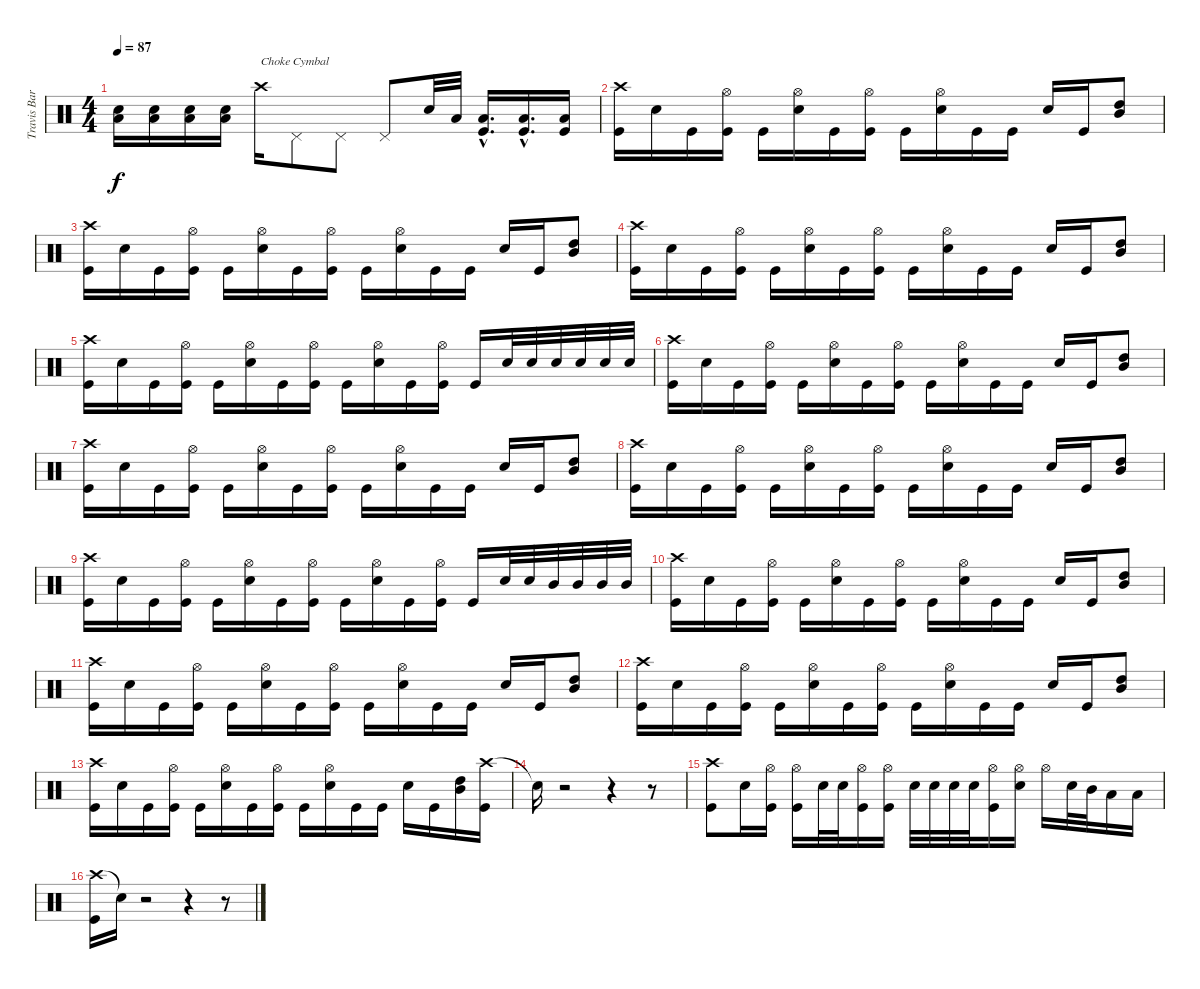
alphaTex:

\track ("Travis Barker" "Travis Bar") {instrument percussion}
\staff {score}
\articulation defaults
\ts (4 4)
\tempo 87
\clef neutral
\ks c
("Low Tom (hit)" "Electric Snare (hit)").16{dy f} ("Low Tom (hit)" "Electric Snare (hit)").16 ("Low Tom (hit)" "Electric Snare (hit)").16 ("Low Tom (hit)" "Electric Snare (hit)").16 "Crash high (hit)".16{txt "Choke Cymbal"} "Pedal Hi-Hat (hit)".8 "Pedal Hi-Hat (hit)".8 "Pedal Hi-Hat (hit)".8 "Electric Snare (hit)".32 "Low Tom (hit)".32 ("Low Tom (hit)"{hac} "Kick (hit)"{hac}).16{d} ("Low Tom (hit)"{hac} "Kick (hit)"{hac}).16{d} ("Low Tom (hit)" "Kick (hit)").16 |
("Crash high (hit)" "Kick (hit)").16 "Electric Snare (hit)".16 "Kick (hit)".16 ("Hi-Hat (open)" "Kick (hit)").16 "Kick (hit)".16 ("Hi-Hat (open)" "Electric Snare (hit)").16 "Kick (hit)".16 ("Hi-Hat (open)" "Kick (hit)").16 "Kick (hit)".16 ("Hi-Hat (open)" "Electric Snare (hit)").16 "Kick (hit)".16 "Kick (hit)".16 "Electric Snare (hit)".16 "Kick (hit)".16 ("High Tom (hit)" "Mid Tom (hit)").8 |
("Crash high (hit)" "Kick (hit)").16 "Electric Snare (hit)".16 "Kick (hit)".16 ("Hi-Hat (open)" "Kick (hit)").16 "Kick (hit)".16 ("Hi-Hat (open)" "Electric Snare (hit)").16 "Kick (hit)".16 ("Hi-Hat (open)" "Kick (hit)").16 "Kick (hit)".16 ("Hi-Hat (open)" "Electric Snare (hit)").16 "Kick (hit)".16 "Kick (hit)".16 "Electric Snare (hit)".16 "Kick (hit)".16 ("High Tom (hit)" "Mid Tom (hit)").8 |
("Crash high (hit)" "Kick (hit)").16 "Electric Snare (hit)".16 "Kick (hit)".16 ("Hi-Hat (open)" "Kick (hit)").16 "Kick (hit)".16 ("Hi-Hat (open)" "Electric Snare (hit)").16 "Kick (hit)".16 ("Hi-Hat (open)" "Kick (hit)").16 "Kick (hit)".16 ("Hi-Hat (open)" "Electric Snare (hit)").16 "Kick (hit)".16 "Kick (hit)".16 "Electric Snare (hit)".16 "Kick (hit)".16 ("High Tom (hit)" "Mid Tom (hit)").8 |
("Crash high (hit)" "Kick (hit)").16 "Electric Snare (hit)".16 "Kick (hit)".16 ("Hi-Hat (open)" "Kick (hit)").16 "Kick (hit)".16 ("Hi-Hat (open)" "Electric Snare (hit)").16 "Kick (hit)".16 ("Hi-Hat (open)" "Kick (hit)").16 "Kick (hit)".16 ("Hi-Hat (open)" "Electric Snare (hit)").16 "Kick (hit)".16 ("Hi-Hat (open)" "Kick (hit)").16 "Kick (hit)".16 "Electric Snare (hit)".32 "Electric Snare (hit)".32 "Electric Snare (hit)".32 "Electric Snare (hit)".32 "Electric Snare (hit)".32 "Electric Snare (hit)".32 |
("Crash high (hit)" "Kick (hit)").16 "Electric Snare (hit)".16 "Kick (hit)".16 ("Hi-Hat (open)" "Kick (hit)").16 "Kick (hit)".16 ("Hi-Hat (open)" "Electric Snare (hit)").16 "Kick (hit)".16 ("Hi-Hat (open)" "Kick (hit)").16 "Kick (hit)".16 ("Hi-Hat (open)" "Electric Snare (hit)").16 "Kick (hit)".16 "Kick (hit)".16 "Electric Snare (hit)".16 "Kick (hit)".16 ("High Tom (hit)" "Mid Tom (hit)").8 |
("Crash high (hit)" "Kick (hit)").16 "Electric Snare (hit)".16 "Kick (hit)".16 ("Hi-Hat (open)" "Kick (hit)").16 "Kick (hit)".16 ("Hi-Hat (open)" "Electric Snare (hit)").16 "Kick (hit)".16 ("Hi-Hat (open)" "Kick (hit)").16 "Kick (hit)".16 ("Hi-Hat (open)" "Electric Snare (hit)").16 "Kick (hit)".16 "Kick (hit)".16 "Electric Snare (hit)".16 "Kick (hit)".16 ("High Tom (hit)" "Mid Tom (hit)").8 |
("Crash high (hit)" "Kick (hit)").16 "Electric Snare (hit)".16 "Kick (hit)".16 ("Hi-Hat (open)" "Kick (hit)").16 "Kick (hit)".16 ("Hi-Hat (open)" "Electric Snare (hit)").16 "Kick (hit)".16 ("Hi-Hat (open)" "Kick (hit)").16 "Kick (hit)".16 ("Hi-Hat (open)" "Electric Snare (hit)").16 "Kick (hit)".16 "Kick (hit)".16 "Electric Snare (hit)".16 "Kick (hit)".16 ("High Tom (hit)" "Mid Tom (hit)").8 |
("Crash high (hit)" "Kick (hit)").16 "Electric Snare (hit)".16 "Kick (hit)".16 ("Hi-Hat (open)" "Kick (hit)").16 "Kick (hit)".16 ("Hi-Hat (open)" "Electric Snare (hit)").16 "Kick (hit)".16 ("Hi-Hat (open)" "Kick (hit)").16 "Kick (hit)".16 ("Hi-Hat (open)" "Electric Snare (hit)").16 "Kick (hit)".16 ("Hi-Hat (open)" "Kick (hit)").16 "Kick (hit)".16 "Electric Snare (hit)".32 "Electric Snare (hit)".32 "Mid Tom (hit)".32 "Mid Tom (hit)".32 "Mid Tom (hit)".32 "Mid Tom (hit)".32 |
("Crash high (hit)" "Kick (hit)").16 "Electric Snare (hit)".16 "Kick (hit)".16 ("Hi-Hat (open)" "Kick (hit)").16 "Kick (hit)".16 ("Hi-Hat (open)" "Electric Snare (hit)").16 "Kick (hit)".16 ("Hi-Hat (open)" "Kick (hit)").16 "Kick (hit)".16 ("Hi-Hat (open)" "Electric Snare (hit)").16 "Kick (hit)".16 "Kick (hit)".16 "Electric Snare (hit)".16 "Kick (hit)".16 ("High Tom (hit)" "Mid Tom (hit)").8 |
("Crash high (hit)" "Kick (hit)").16 "Electric Snare (hit)".16 "Kick (hit)".16 ("Hi-Hat (open)" "Kick (hit)").16 "Kick (hit)".16 ("Hi-Hat (open)" "Electric Snare (hit)").16 "Kick (hit)".16 ("Hi-Hat (open)" "Kick (hit)").16 "Kick (hit)".16 ("Hi-Hat (open)" "Electric Snare (hit)").16 "Kick (hit)".16 "Kick (hit)".16 "Electric Snare (hit)".16 "Kick (hit)".16 ("High Tom (hit)" "Mid Tom (hit)").8 |
("Crash high (hit)" "Kick (hit)").16 "Electric Snare (hit)".16 "Kick (hit)".16 ("Hi-Hat (open)" "Kick (hit)").16 "Kick (hit)".16 ("Hi-Hat (open)" "Electric Snare (hit)").16 "Kick (hit)".16 ("Hi-Hat (open)" "Kick (hit)").16 "Kick (hit)".16 ("Hi-Hat (open)" "Electric Snare (hit)").16 "Kick (hit)".16 "Kick (hit)".16 "Electric Snare (hit)".16 "Kick (hit)".16 ("High Tom (hit)" "Mid Tom (hit)").8 |
("Crash high (hit)" "Kick (hit)").16 "Electric Snare (hit)".16 "Kick (hit)".16 ("Hi-Hat (open)" "Kick (hit)").16 "Kick (hit)".16 ("Hi-Hat (open)" "Electric Snare (hit)").16 "Kick (hit)".16 ("Hi-Hat (open)" "Kick (hit)").16 "Kick (hit)".16 ("Hi-Hat (open)" "Electric Snare (hit)").16 "Kick (hit)".16 "Kick (hit)".16 "Electric Snare (hit)".16 "Kick (hit)".16 ("High Tom (hit)" "Mid Tom (hit)").16 ("Crash high (hit)" "Kick (hit)").16 |
"Snare (hit)"{t}.16{volume 0} r.2 r.4 r.8 |
("Crash high (hit)" "Kick (hit)").8{volume 16} "Electric Snare (hit)".16 ("Hi-Hat (open)" "Kick (hit)").16 ("Hi-Hat (open)" "Kick (hit)").16 "Electric Snare (hit)".32 "Electric Snare (hit)".32 ("Hi-Hat (open)" "Kick (hit)").16 ("Hi-Hat (open)" "Kick (hit)").16 "Electric Snare (hit)".32 "Electric Snare (hit)".32 "Electric Snare (hit)".32 "Electric Snare (hit)".32 ("Hi-Hat (open)" "Kick (hit)").16 ("Hi-Hat (open)" "Electric Snare (hit)").16 "Hi-Hat (open)".16 "Electric Snare (hit)".32 "Mid Tom (hit)".32 "Low Tom (hit)".16 "Low Tom (hit)".16 |
("Crash high (hit)" "Kick (hit)").16 "Snare (hit)"{t}.16{volume 0} r.2 r.4 r.8
